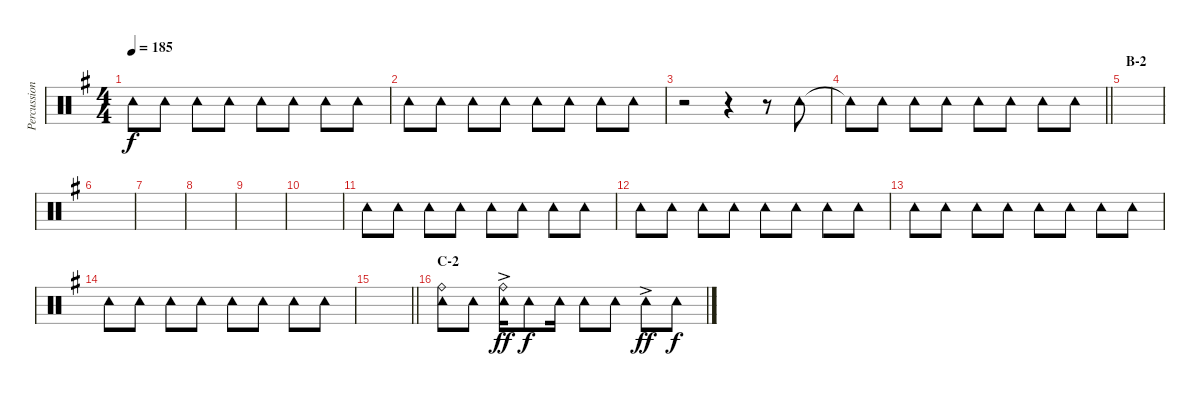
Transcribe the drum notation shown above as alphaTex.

\track ("Percussion I" "Percussion") {instrument percussion}
\staff {score}
\articulation defaults
\ts (4 4)
\tempo 185
\clef neutral
\ks g "Tambourine (hit)".8{dy f} "Tambourine (hit)".8 "Tambourine (hit)".8 "Tambourine (hit)".8 "Tambourine (hit)".8 "Tambourine (hit)".8 "Tambourine (hit)".8 "Tambourine (hit)".8
|
"Tambourine (hit)".8 "Tambourine (hit)".8 "Tambourine (hit)".8 "Tambourine (hit)".8 "Tambourine (hit)".8 "Tambourine (hit)".8 "Tambourine (hit)".8 "Tambourine (hit)".8 |
r.2 r.4 r.8 "Tambourine (hit)".8 |
\barLineRight lightlight "Tambourine (hit)"{t}.8 "Tambourine (hit)".8 "Tambourine (hit)".8 "Tambourine (hit)".8 "Tambourine (hit)".8 "Tambourine (hit)".8 "Tambourine (hit)".8 "Tambourine (hit)".8
|
\section ("" "B-2")
|
|
|
|
|
|
"Tambourine (hit)".8 "Tambourine (hit)".8 "Tambourine (hit)".8 "Tambourine (hit)".8 "Tambourine (hit)".8 "Tambourine (hit)".8 "Tambourine (hit)".8 "Tambourine (hit)".8 |
"Tambourine (hit)".8 "Tambourine (hit)".8 "Tambourine (hit)".8 "Tambourine (hit)".8 "Tambourine (hit)".8 "Tambourine (hit)".8 "Tambourine (hit)".8 "Tambourine (hit)".8 |
"Tambourine (hit)".8 "Tambourine (hit)".8 "Tambourine (hit)".8 "Tambourine (hit)".8 "Tambourine (hit)".8 "Tambourine (hit)".8 "Tambourine (hit)".8 "Tambourine (hit)".8 |
"Tambourine (hit)".8 "Tambourine (hit)".8 "Tambourine (hit)".8 "Tambourine (hit)".8 "Tambourine (hit)".8 "Tambourine (hit)".8 "Tambourine (hit)".8 "Tambourine (hit)".8 |
\barLineRight lightlight
|
\section ("" "C-2")
("Ride (bell)" "Tambourine (hit)").8 "Tambourine (hit)".8 ("Ride (bell)" "Tambourine (hit)"{ac}).16{dy ff} "Tambourine (hit)".8{dy f} "Tambourine (hit)".16 "Tambourine (hit)".8 "Tambourine (hit)".8 "Tambourine (hit)"{ac}.8{dy ff} "Tambourine (hit)".8{dy f}
